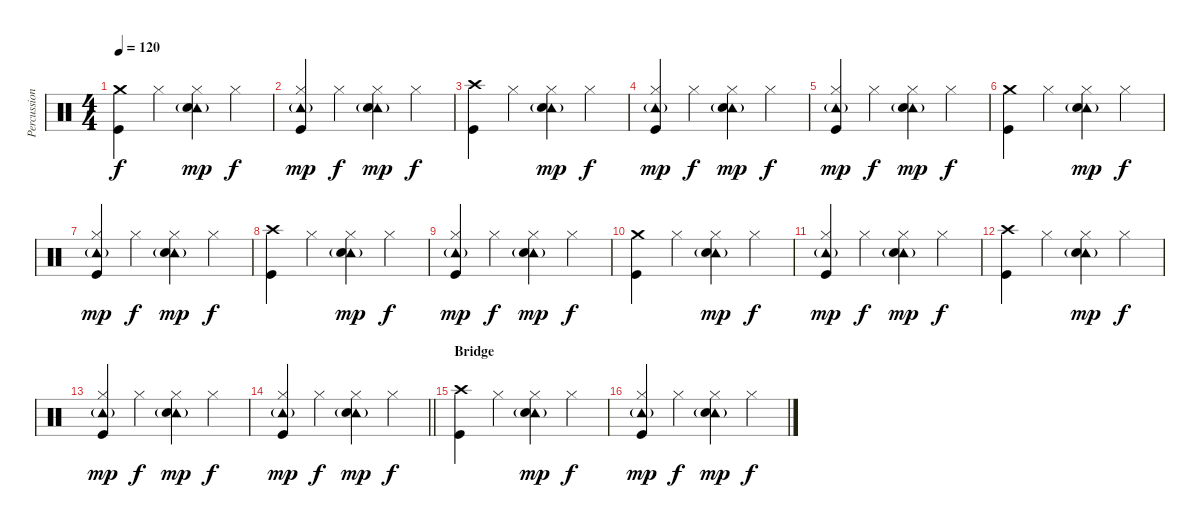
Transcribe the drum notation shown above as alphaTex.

\track ("Percussioni" "Percussion") {instrument percussion}
\staff {score}
\articulation defaults
\ts (4 4)
\tempo 120
\clef neutral
\ks c
("Crash medium (hit)" "Kick (hit)").4{dy f} "Hi-Hat (closed)".4 ("Tambourine (hit)"{g} "Hi-Hat (closed)" "Snare (hit) 2").4{dy mp} "Hi-Hat (closed)".4{dy f} |
("Tambourine (hit)"{g} "Hi-Hat (closed)" "Kick (hit)").4{dy mp} "Hi-Hat (closed)".4{dy f} ("Tambourine (hit)"{g} "Hi-Hat (closed)" "Snare (hit) 2").4{dy mp} "Hi-Hat (closed)".4{dy f} |
("Crash high (hit)" "Kick (hit)").4 "Hi-Hat (closed)".4 ("Tambourine (hit)"{g} "Hi-Hat (closed)" "Snare (hit) 2").4{dy mp} "Hi-Hat (closed)".4{dy f} |
("Tambourine (hit)"{g} "Hi-Hat (closed)" "Kick (hit)").4{dy mp} "Hi-Hat (closed)".4{dy f} ("Tambourine (hit)"{g} "Hi-Hat (closed)" "Snare (hit) 2").4{dy mp} "Hi-Hat (closed)".4{dy f} |
("Tambourine (hit)"{g} "Hi-Hat (closed)" "Kick (hit)").4{dy mp} "Hi-Hat (closed)".4{dy f} ("Tambourine (hit)"{g} "Hi-Hat (closed)" "Snare (hit) 2").4{dy mp} "Hi-Hat (closed)".4{dy f} |
("Crash medium (hit)" "Kick (hit)").4 "Hi-Hat (closed)".4 ("Tambourine (hit)"{g} "Hi-Hat (closed)" "Snare (hit) 2").4{dy mp} "Hi-Hat (closed)".4{dy f} |
("Tambourine (hit)"{g} "Hi-Hat (closed)" "Kick (hit)").4{dy mp} "Hi-Hat (closed)".4{dy f} ("Tambourine (hit)"{g} "Hi-Hat (closed)" "Snare (hit) 2").4{dy mp} "Hi-Hat (closed)".4{dy f} |
("Crash high (hit)" "Kick (hit)").4 "Hi-Hat (closed)".4 ("Tambourine (hit)"{g} "Hi-Hat (closed)" "Snare (hit) 2").4{dy mp} "Hi-Hat (closed)".4{dy f} |
("Tambourine (hit)"{g} "Hi-Hat (closed)" "Kick (hit)").4{dy mp} "Hi-Hat (closed)".4{dy f} ("Tambourine (hit)"{g} "Hi-Hat (closed)" "Snare (hit) 2").4{dy mp} "Hi-Hat (closed)".4{dy f} |
("Crash medium (hit)" "Kick (hit)").4 "Hi-Hat (closed)".4 ("Tambourine (hit)"{g} "Hi-Hat (closed)" "Snare (hit) 2").4{dy mp} "Hi-Hat (closed)".4{dy f} |
("Tambourine (hit)"{g} "Hi-Hat (closed)" "Kick (hit)").4{dy mp} "Hi-Hat (closed)".4{dy f} ("Tambourine (hit)"{g} "Hi-Hat (closed)" "Snare (hit) 2").4{dy mp} "Hi-Hat (closed)".4{dy f} |
("Crash high (hit)" "Kick (hit)").4 "Hi-Hat (closed)".4 ("Tambourine (hit)"{g} "Hi-Hat (closed)" "Snare (hit) 2").4{dy mp} "Hi-Hat (closed)".4{dy f} |
("Tambourine (hit)"{g} "Hi-Hat (closed)" "Kick (hit)").4{dy mp} "Hi-Hat (closed)".4{dy f} ("Tambourine (hit)"{g} "Hi-Hat (closed)" "Snare (hit) 2").4{dy mp} "Hi-Hat (closed)".4{dy f} |
\barLineRight lightlight
("Tambourine (hit)"{g} "Hi-Hat (closed)" "Kick (hit)").4{dy mp} "Hi-Hat (closed)".4{dy f} ("Tambourine (hit)"{g} "Hi-Hat (closed)" "Snare (hit) 2").4{dy mp} "Hi-Hat (closed)".4{dy f} |
\section ("" "Bridge")
("Crash high (hit)" "Kick (hit)").4 "Hi-Hat (closed)".4 ("Tambourine (hit)"{g} "Hi-Hat (closed)" "Snare (hit) 2").4{dy mp} "Hi-Hat (closed)".4{dy f} |
("Tambourine (hit)"{g} "Hi-Hat (closed)" "Kick (hit)").4{dy mp} "Hi-Hat (closed)".4{dy f} ("Tambourine (hit)"{g} "Hi-Hat (closed)" "Snare (hit) 2").4{dy mp} "Hi-Hat (closed)".4{dy f}
